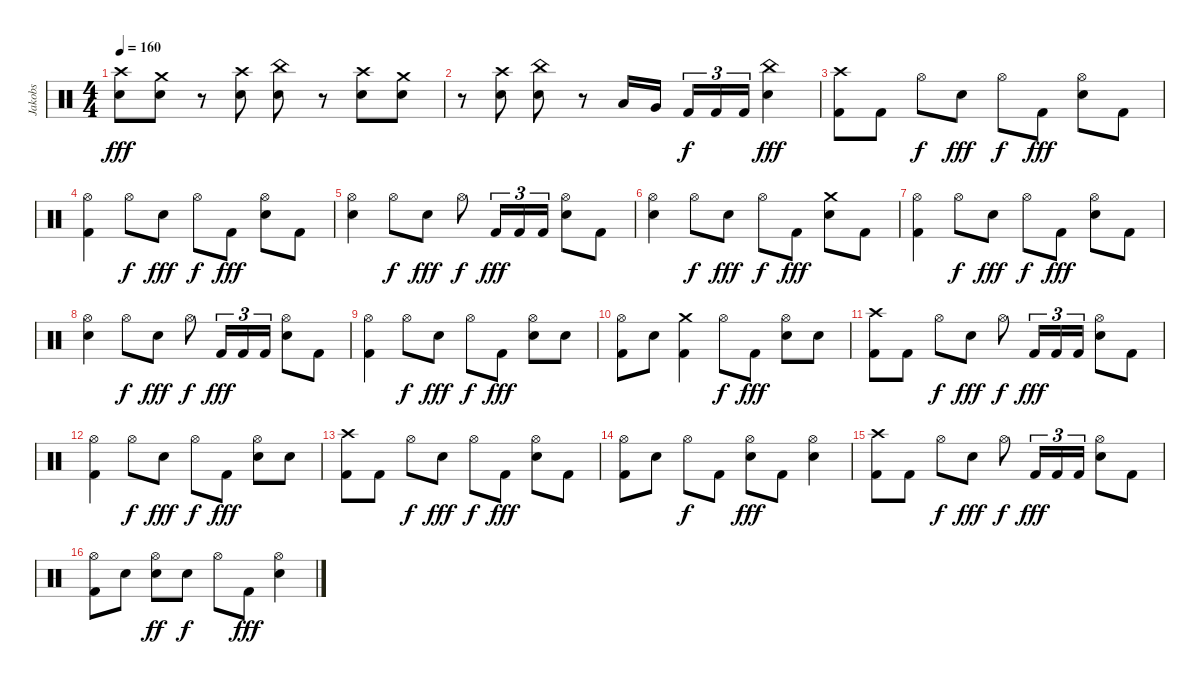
\track ("Jakobs" "Jakobs") {instrument percussion}
\staff {score}
\articulation defaults
\ts (4 4)
\tempo 160
\clef neutral
\ks c
("Crash high (hit)" "Snare (hit) 2").8{dy fff} ("Crash medium (hit)" "Snare (hit) 2").8 r.8 ("Crash high (hit)" "Snare (hit) 2").8 ("China (hit)" "Snare (hit) 2").8 r.8 ("Crash high (hit)" "Snare (hit) 2").8 ("Crash medium (hit)" "Snare (hit) 2").8 |
r.8 ("Crash high (hit)" "Snare (hit) 2").8 ("China (hit)" "Snare (hit) 2").8 r.8 "Low Tom (hit)".16 "Very Low Tom (hit)".16 "Kick (hit) 2".16{tu (3 2) dy f} "Kick (hit) 2".16{tu (3 2)} "Kick (hit) 2".16{tu (3 2)} ("China (hit)" "Snare (hit) 2").4{dy fff} |
("Crash high (hit)" "Kick (hit) 2").8 "Kick (hit) 2".8 "Hi-Hat (open)".8{dy f} "Snare (hit) 2".8{dy fff} "Hi-Hat (open)".8{dy f} "Kick (hit) 2".8{dy fff} ("Hi-Hat (open)" "Snare (hit) 2").8 "Kick (hit) 2".8 |
("Hi-Hat (open)" "Kick (hit) 2").4 "Hi-Hat (open)".8{dy f} "Snare (hit) 2".8{dy fff} "Hi-Hat (open)".8{dy f} "Kick (hit) 2".8{dy fff} ("Hi-Hat (open)" "Snare (hit) 2").8 "Kick (hit) 2".8 |
("Hi-Hat (open)" "Snare (hit) 2").4 "Hi-Hat (open)".8{dy f} "Snare (hit) 2".8{dy fff} "Hi-Hat (open)".8{dy f} "Kick (hit) 2".16{tu (3 2) dy fff} "Kick (hit) 2".16{tu (3 2)} "Kick (hit) 2".16{tu (3 2)} ("Hi-Hat (open)" "Snare (hit) 2").8 "Kick (hit) 2".8 |
("Hi-Hat (open)" "Snare (hit) 2").4 "Hi-Hat (open)".8{dy f} "Snare (hit) 2".8{dy fff} "Hi-Hat (open)".8{dy f} "Kick (hit) 2".8{dy fff} ("Crash medium (hit)" "Snare (hit) 2").8 "Kick (hit) 2".8 |
("Hi-Hat (open)" "Kick (hit) 2").4 "Hi-Hat (open)".8{dy f} "Snare (hit) 2".8{dy fff} "Hi-Hat (open)".8{dy f} "Kick (hit) 2".8{dy fff} ("Hi-Hat (open)" "Snare (hit) 2").8 "Kick (hit) 2".8 |
("Hi-Hat (open)" "Snare (hit) 2").4 "Hi-Hat (open)".8{dy f} "Snare (hit) 2".8{dy fff} "Hi-Hat (open)".8{dy f} "Kick (hit) 2".16{tu (3 2) dy fff} "Kick (hit) 2".16{tu (3 2)} "Kick (hit) 2".16{tu (3 2)} ("Hi-Hat (open)" "Snare (hit) 2").8 "Kick (hit) 2".8 |
("Hi-Hat (open)" "Kick (hit) 2").4 "Hi-Hat (open)".8{dy f} "Snare (hit) 2".8{dy fff} "Hi-Hat (open)".8{dy f} "Kick (hit) 2".8{dy fff} ("Hi-Hat (open)" "Snare (hit) 2").8 "Snare (hit) 2".8 |
("Hi-Hat (open)" "Kick (hit) 2").8 "Snare (hit) 2".8 ("Crash medium (hit)" "Kick (hit) 2").4 "Hi-Hat (open)".8{dy f} "Kick (hit) 2".8{dy fff} ("Hi-Hat (open)" "Snare (hit) 2").8 "Snare (hit) 2".8 |
("Crash high (hit)" "Kick (hit) 2").8 "Kick (hit) 2".8 "Hi-Hat (open)".8{dy f} "Snare (hit) 2".8{dy fff} "Hi-Hat (open)".8{dy f} "Kick (hit) 2".16{tu (3 2) dy fff} "Kick (hit) 2".16{tu (3 2)} "Kick (hit) 2".16{tu (3 2)} ("Hi-Hat (open)" "Snare (hit) 2").8 "Kick (hit) 2".8 |
("Hi-Hat (open)" "Kick (hit) 2").4 "Hi-Hat (open)".8{dy f} "Snare (hit) 2".8{dy fff} "Hi-Hat (open)".8{dy f} "Kick (hit) 2".8{dy fff} ("Hi-Hat (open)" "Snare (hit) 2").8 "Snare (hit) 2".8 |
("Crash high (hit)" "Kick (hit) 2").8 "Kick (hit) 2".8 "Hi-Hat (open)".8{dy f} "Snare (hit) 2".8{dy fff} "Hi-Hat (open)".8{dy f} "Kick (hit) 2".8{dy fff} ("Hi-Hat (open)" "Snare (hit) 2").8 "Kick (hit) 2".8 |
("Hi-Hat (open)" "Kick (hit) 2").8 "Snare (hit) 2".8 "Hi-Hat (open)".8{dy f} "Kick (hit) 2".8 ("Hi-Hat (open)" "Snare (hit) 2").8{dy fff} "Kick (hit) 2".8 ("Hi-Hat (open)" "Snare (hit) 2").4 |
("Crash high (hit)" "Kick (hit) 2").8 "Kick (hit) 2".8 "Hi-Hat (open)".8{dy f} "Snare (hit) 2".8{dy fff} "Hi-Hat (open)".8{dy f} "Kick (hit) 2".16{tu (3 2) dy fff} "Kick (hit) 2".16{tu (3 2)} "Kick (hit) 2".16{tu (3 2)} ("Hi-Hat (open)" "Snare (hit) 2").8 "Kick (hit) 2".8 |
("Hi-Hat (open)" "Kick (hit) 2").8 "Snare (hit) 2".8 ("Hi-Hat (open)" "Snare (hit) 2").8{dy ff} "Snare (hit) 2".8{dy f} "Hi-Hat (open)".8 "Kick (hit) 2".8{dy fff} ("Hi-Hat (open)" "Snare (hit) 2").4
